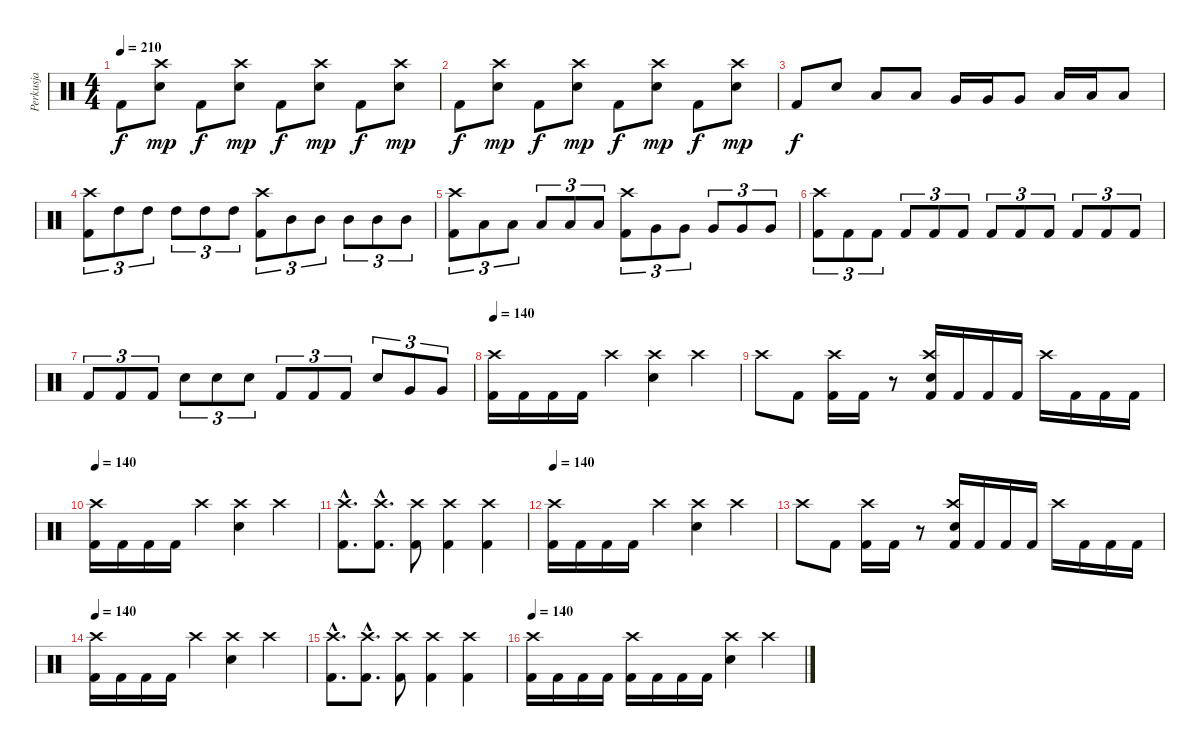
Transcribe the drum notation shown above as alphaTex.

\track ("Perkusja" "Perkusja") {instrument percussion}
\staff {score}
\articulation defaults
\ts (4 4)
\tempo 210
\clef neutral
\ks c "Kick (hit) 2".8{dy f}
("Crash high (hit)" "Electric Snare (hit)").8{dy mp} "Kick (hit) 2".8{dy f} ("Crash high (hit)" "Electric Snare (hit)").8{dy mp} "Kick (hit) 2".8{dy f} ("Crash high (hit)" "Electric Snare (hit)").8{dy mp} "Kick (hit) 2".8{dy f} ("Crash high (hit)" "Electric Snare (hit)").8{dy mp} |
"Kick (hit) 2".8{dy f} ("Crash high (hit)" "Electric Snare (hit)").8{dy mp} "Kick (hit) 2".8{dy f} ("Crash high (hit)" "Electric Snare (hit)").8{dy mp} "Kick (hit) 2".8{dy f} ("Crash high (hit)" "Electric Snare (hit)").8{dy mp} "Kick (hit) 2".8{dy f} ("Crash high (hit)" "Electric Snare (hit)").8{dy mp} |
"Kick (hit) 2".8{dy f} "Electric Snare (hit)".8 "Low Tom (hit)".8 "Low Tom (hit)".8 "Very Low Tom (hit)".16 "Very Low Tom (hit)".16 "Very Low Tom (hit)".8 "Low Floor Tom (hit)".16 "Low Floor Tom (hit)".16 "Low Floor Tom (hit)".8 |
("Crash high (hit)" "Kick (hit) 2").8{tu (3 2)} "High Tom (hit)".8{tu (3 2)} "High Tom (hit)".8{tu (3 2)} "High Tom (hit)".8{tu (3 2)} "High Tom (hit)".8{tu (3 2)} "High Tom (hit)".8{tu (3 2)} ("Crash high (hit)" "Kick (hit) 2").8{tu (3 2)} "Mid Tom (hit)".8{tu (3 2)} "Mid Tom (hit)".8{tu (3 2)} "Mid Tom (hit)".8{tu (3 2)} "Mid Tom (hit)".8{tu (3 2)} "Mid Tom (hit)".8{tu (3 2)} |
("Crash high (hit)" "Kick (hit) 2").8{tu (3 2)} "Low Tom (hit)".8{tu (3 2)} "Low Tom (hit)".8{tu (3 2)} "Low Tom (hit)".8{tu (3 2)} "Low Tom (hit)".8{tu (3 2)} "Low Tom (hit)".8{tu (3 2)} ("Crash high (hit)" "Kick (hit) 2").8{tu (3 2)} "Very Low Tom (hit)".8{tu (3 2)} "Very Low Tom (hit)".8{tu (3 2)} "Very Low Tom (hit)".8{tu (3 2)} "Very Low Tom (hit)".8{tu (3 2)} "Very Low Tom (hit)".8{tu (3 2)} |
("Crash high (hit)" "Kick (hit) 2").8{tu (3 2)} "Kick (hit) 2".8{tu (3 2)} "Kick (hit) 2".8{tu (3 2)} "Kick (hit) 2".8{tu (3 2)} "Kick (hit) 2".8{tu (3 2)} "Kick (hit) 2".8{tu (3 2)} "Kick (hit) 2".8{tu (3 2)} "Kick (hit) 2".8{tu (3 2)} "Kick (hit) 2".8{tu (3 2)} "Kick (hit) 2".8{tu (3 2)} "Kick (hit) 2".8{tu (3 2)} "Kick (hit) 2".8{tu (3 2)} |
"Kick (hit) 2".8{tu (3 2)} "Kick (hit) 2".8{tu (3 2)} "Kick (hit) 2".8{tu (3 2)} "Electric Snare (hit)".8{tu (3 2)} "Electric Snare (hit)".8{tu (3 2)} "Electric Snare (hit)".8{tu (3 2)} "Kick (hit) 2".8{tu (3 2)} "Kick (hit) 2".8{tu (3 2)} "Kick (hit) 2".8{tu (3 2)} "Electric Snare (hit)".8{tu (3 2)} "Very Low Tom (hit)".8{tu (3 2)} "Very Low Tom (hit)".8{tu (3 2)} |
\tempo 140
("Crash high (hit)" "Kick (hit) 2").16 "Kick (hit) 2".16 "Kick (hit) 2".16 "Kick (hit) 2".16 "Crash high (hit)".4 ("Crash high (hit)" "Electric Snare (hit)").4 "Crash high (hit)".4 |
"Crash high (hit)".8 "Kick (hit) 2".8 ("Crash high (hit)" "Kick (hit) 2").16 "Kick (hit) 2".16 r.8 ("Crash high (hit)" "Electric Snare (hit)" "Kick (hit) 2").16 "Kick (hit) 2".16 "Kick (hit) 2".16 "Kick (hit) 2".16 "Crash high (hit)".16 "Kick (hit) 2".16 "Kick (hit) 2".16 "Kick (hit) 2".16 |
\tempo 140
("Crash high (hit)" "Kick (hit) 2").16 "Kick (hit) 2".16 "Kick (hit) 2".16 "Kick (hit) 2".16 "Crash high (hit)".4 ("Crash high (hit)" "Electric Snare (hit)").4 "Crash high (hit)".4 |
("Crash high (hit)"{hac} "Kick (hit) 2"{hac}).8{d} ("Crash high (hit)"{hac} "Kick (hit) 2"{hac}).8{d} ("Crash high (hit)" "Kick (hit) 2").8 ("Crash high (hit)" "Kick (hit) 2").4 ("Crash high (hit)" "Kick (hit) 2").4 |
\tempo 140
("Crash high (hit)" "Kick (hit) 2").16 "Kick (hit) 2".16 "Kick (hit) 2".16 "Kick (hit) 2".16 "Crash high (hit)".4 ("Crash high (hit)" "Electric Snare (hit)").4 "Crash high (hit)".4 |
"Crash high (hit)".8 "Kick (hit) 2".8 ("Crash high (hit)" "Kick (hit) 2").16 "Kick (hit) 2".16 r.8 ("Crash high (hit)" "Electric Snare (hit)" "Kick (hit) 2").16 "Kick (hit) 2".16 "Kick (hit) 2".16 "Kick (hit) 2".16 "Crash high (hit)".16 "Kick (hit) 2".16 "Kick (hit) 2".16 "Kick (hit) 2".16 |
\tempo 140
("Crash high (hit)" "Kick (hit) 2").16 "Kick (hit) 2".16 "Kick (hit) 2".16 "Kick (hit) 2".16 "Crash high (hit)".4 ("Crash high (hit)" "Electric Snare (hit)").4 "Crash high (hit)".4 |
("Crash high (hit)"{hac} "Kick (hit) 2"{hac}).8{d} ("Crash high (hit)"{hac} "Kick (hit) 2"{hac}).8{d} ("Crash high (hit)" "Kick (hit) 2").8 ("Crash high (hit)" "Kick (hit) 2").4 ("Crash high (hit)" "Kick (hit) 2").4 |
\tempo 140
("Crash high (hit)" "Kick (hit) 2").16 "Kick (hit) 2".16 "Kick (hit) 2".16 "Kick (hit) 2".16 ("Crash high (hit)" "Kick (hit) 2").16 "Kick (hit) 2".16 "Kick (hit) 2".16 "Kick (hit) 2".16 ("Crash high (hit)" "Electric Snare (hit)").4 "Crash high (hit)".4
